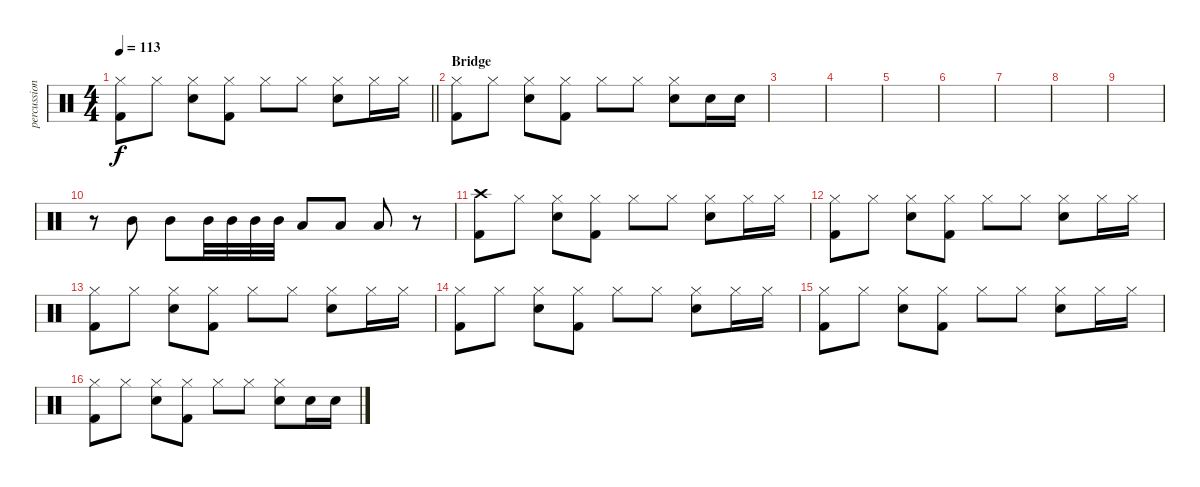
\track ("percussion" "percussion") {instrument percussion}
\staff {score}
\articulation defaults
\ts (4 4)
\tempo 113
\clef neutral
\barLineRight lightlight
\ks c
("Hi-Hat (closed)" "Kick (hit) 2").8{dy f} "Hi-Hat (closed)".8 ("Snare (hit) 2" "Hi-Hat (closed)").8 ("Hi-Hat (closed)" "Kick (hit) 2").8 "Hi-Hat (closed)".8 "Hi-Hat (closed)".8 ("Snare (hit) 2" "Hi-Hat (closed)").8 "Hi-Hat (closed)".16 "Hi-Hat (closed)".16 |
\section ("" "Bridge")
("Hi-Hat (closed)" "Kick (hit) 2").8 "Hi-Hat (closed)".8 ("Snare (hit) 2" "Hi-Hat (closed)").8 ("Hi-Hat (closed)" "Kick (hit) 2").8 "Hi-Hat (closed)".8 "Hi-Hat (closed)".8 ("Snare (hit) 2" "Hi-Hat (closed)").8 "Snare (hit) 2".16 "Snare (hit) 2".16 |
|
|
|
|
|
|
|
r.8 "Mid Tom (hit)".8 "Mid Tom (hit)".8 "Mid Tom (hit)".32 "Mid Tom (hit)".32 "Mid Tom (hit)".32 "Mid Tom (hit)".32 "Low Tom (hit)".8 "Low Tom (hit)".8 "Low Floor Tom (hit)".8 r.8 |
("Crash high (hit)" "Kick (hit) 2").8 "Hi-Hat (closed)".8 ("Snare (hit) 2" "Hi-Hat (closed)").8 ("Hi-Hat (closed)" "Kick (hit) 2").8 "Hi-Hat (closed)".8 "Hi-Hat (closed)".8 ("Snare (hit) 2" "Hi-Hat (closed)").8 "Hi-Hat (closed)".16 "Hi-Hat (closed)".16 |
("Hi-Hat (closed)" "Kick (hit) 2").8 "Hi-Hat (closed)".8 ("Snare (hit) 2" "Hi-Hat (closed)").8 ("Hi-Hat (closed)" "Kick (hit) 2").8 "Hi-Hat (closed)".8 "Hi-Hat (closed)".8 ("Snare (hit) 2" "Hi-Hat (closed)").8 "Hi-Hat (closed)".16 "Hi-Hat (closed)".16 |
("Hi-Hat (closed)" "Kick (hit) 2").8 "Hi-Hat (closed)".8 ("Snare (hit) 2" "Hi-Hat (closed)").8 ("Hi-Hat (closed)" "Kick (hit) 2").8 "Hi-Hat (closed)".8 "Hi-Hat (closed)".8 ("Snare (hit) 2" "Hi-Hat (closed)").8 "Hi-Hat (closed)".16 "Hi-Hat (closed)".16 |
("Hi-Hat (closed)" "Kick (hit) 2").8 "Hi-Hat (closed)".8 ("Snare (hit) 2" "Hi-Hat (closed)").8 ("Hi-Hat (closed)" "Kick (hit) 2").8 "Hi-Hat (closed)".8 "Hi-Hat (closed)".8 ("Snare (hit) 2" "Hi-Hat (closed)").8 "Hi-Hat (closed)".16 "Hi-Hat (closed)".16 |
("Hi-Hat (closed)" "Kick (hit) 2").8 "Hi-Hat (closed)".8 ("Snare (hit) 2" "Hi-Hat (closed)").8 ("Hi-Hat (closed)" "Kick (hit) 2").8 "Hi-Hat (closed)".8 "Hi-Hat (closed)".8 ("Snare (hit) 2" "Hi-Hat (closed)").8 "Hi-Hat (closed)".16 "Hi-Hat (closed)".16 |
("Hi-Hat (closed)" "Kick (hit) 2").8 "Hi-Hat (closed)".8 ("Snare (hit) 2" "Hi-Hat (closed)").8 ("Hi-Hat (closed)" "Kick (hit) 2").8 "Hi-Hat (closed)".8 "Hi-Hat (closed)".8 ("Snare (hit) 2" "Hi-Hat (closed)").8 "Snare (hit) 2".16 "Snare (hit) 2".16
